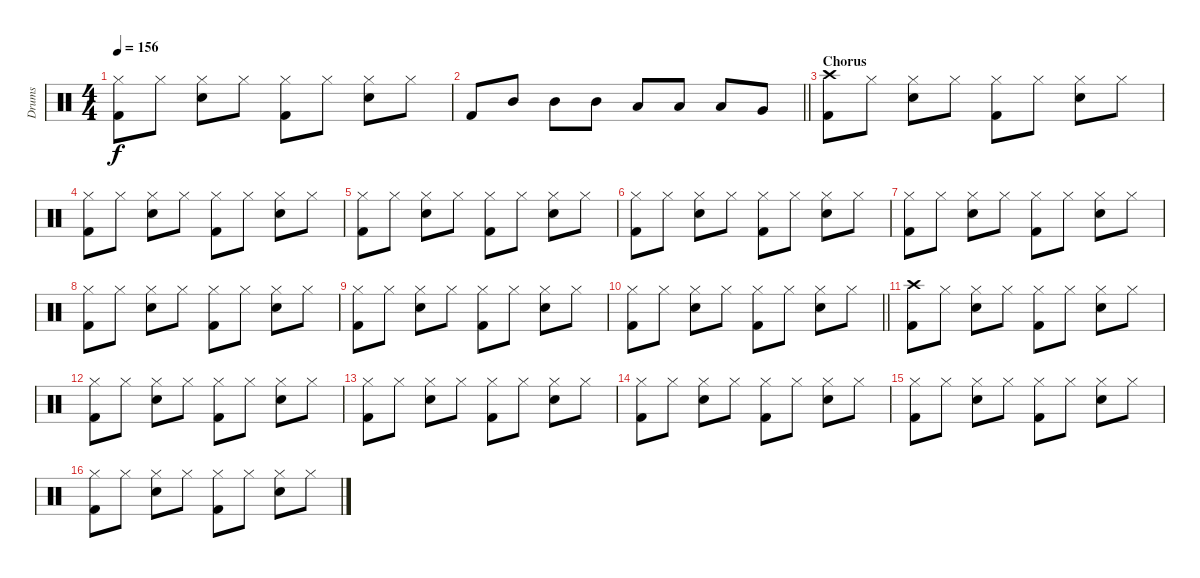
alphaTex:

\track ("Drums" "Drums") {instrument percussion}
\staff {score}
\articulation defaults
\ts (4 4)
\tempo 156
\clef neutral
\ks c
("Hi-Hat (closed)" "Kick (hit) 2").8{dy f} "Hi-Hat (closed)".8 ("Hi-Hat (closed)" "Electric Snare (hit)").8 "Hi-Hat (closed)".8 ("Hi-Hat (closed)" "Kick (hit) 2").8 "Hi-Hat (closed)".8 ("Hi-Hat (closed)" "Electric Snare (hit)").8 "Hi-Hat (closed)".8 |
\barLineRight lightlight "Kick (hit) 2".8 "Mid Tom (hit)".8 "Mid Tom (hit)".8 "Mid Tom (hit)".8 "Low Tom (hit)".8 "Low Tom (hit)".8 "Low Tom (hit)".8 "Very Low Tom (hit)".8
|
\section ("" "Chorus")
("Crash high (hit)" "Kick (hit) 2").8 "Hi-Hat (closed)".8 ("Hi-Hat (closed)" "Electric Snare (hit)").8 "Hi-Hat (closed)".8 ("Hi-Hat (closed)" "Kick (hit) 2").8 "Hi-Hat (closed)".8 ("Hi-Hat (closed)" "Electric Snare (hit)").8 "Hi-Hat (closed)".8 |
("Hi-Hat (closed)" "Kick (hit) 2").8 "Hi-Hat (closed)".8 ("Hi-Hat (closed)" "Electric Snare (hit)").8 "Hi-Hat (closed)".8 ("Hi-Hat (closed)" "Kick (hit) 2").8 "Hi-Hat (closed)".8 ("Hi-Hat (closed)" "Electric Snare (hit)").8 "Hi-Hat (closed)".8 |
("Hi-Hat (closed)" "Kick (hit) 2").8 "Hi-Hat (closed)".8 ("Hi-Hat (closed)" "Electric Snare (hit)").8 "Hi-Hat (closed)".8 ("Hi-Hat (closed)" "Kick (hit) 2").8 "Hi-Hat (closed)".8 ("Hi-Hat (closed)" "Electric Snare (hit)").8 "Hi-Hat (closed)".8 |
("Hi-Hat (closed)" "Kick (hit) 2").8 "Hi-Hat (closed)".8 ("Hi-Hat (closed)" "Electric Snare (hit)").8 "Hi-Hat (closed)".8 ("Hi-Hat (closed)" "Kick (hit) 2").8 "Hi-Hat (closed)".8 ("Hi-Hat (closed)" "Electric Snare (hit)").8 "Hi-Hat (closed)".8 |
("Hi-Hat (closed)" "Kick (hit) 2").8 "Hi-Hat (closed)".8 ("Hi-Hat (closed)" "Electric Snare (hit)").8 "Hi-Hat (closed)".8 ("Hi-Hat (closed)" "Kick (hit) 2").8 "Hi-Hat (closed)".8 ("Hi-Hat (closed)" "Electric Snare (hit)").8 "Hi-Hat (closed)".8 |
("Hi-Hat (closed)" "Kick (hit) 2").8 "Hi-Hat (closed)".8 ("Hi-Hat (closed)" "Electric Snare (hit)").8 "Hi-Hat (closed)".8 ("Hi-Hat (closed)" "Kick (hit) 2").8 "Hi-Hat (closed)".8 ("Hi-Hat (closed)" "Electric Snare (hit)").8 "Hi-Hat (closed)".8 |
("Hi-Hat (closed)" "Kick (hit) 2").8 "Hi-Hat (closed)".8 ("Hi-Hat (closed)" "Electric Snare (hit)").8 "Hi-Hat (closed)".8 ("Hi-Hat (closed)" "Kick (hit) 2").8 "Hi-Hat (closed)".8 ("Hi-Hat (closed)" "Electric Snare (hit)").8 "Hi-Hat (closed)".8 |
\barLineRight lightlight
("Hi-Hat (closed)" "Kick (hit) 2").8 "Hi-Hat (closed)".8 ("Hi-Hat (closed)" "Electric Snare (hit)").8 "Hi-Hat (closed)".8 ("Hi-Hat (closed)" "Kick (hit) 2").8 "Hi-Hat (closed)".8 ("Hi-Hat (closed)" "Electric Snare (hit)").8 "Hi-Hat (closed)".8 |
("Crash high (hit)" "Kick (hit) 2").8 "Hi-Hat (closed)".8 ("Hi-Hat (closed)" "Electric Snare (hit)").8 "Hi-Hat (closed)".8 ("Hi-Hat (closed)" "Kick (hit) 2").8 "Hi-Hat (closed)".8 ("Hi-Hat (closed)" "Electric Snare (hit)").8 "Hi-Hat (closed)".8 |
("Hi-Hat (closed)" "Kick (hit) 2").8 "Hi-Hat (closed)".8 ("Hi-Hat (closed)" "Electric Snare (hit)").8 "Hi-Hat (closed)".8 ("Hi-Hat (closed)" "Kick (hit) 2").8 "Hi-Hat (closed)".8 ("Hi-Hat (closed)" "Electric Snare (hit)").8 "Hi-Hat (closed)".8 |
("Hi-Hat (closed)" "Kick (hit) 2").8 "Hi-Hat (closed)".8 ("Hi-Hat (closed)" "Electric Snare (hit)").8 "Hi-Hat (closed)".8 ("Hi-Hat (closed)" "Kick (hit) 2").8 "Hi-Hat (closed)".8 ("Hi-Hat (closed)" "Electric Snare (hit)").8 "Hi-Hat (closed)".8 |
("Hi-Hat (closed)" "Kick (hit) 2").8 "Hi-Hat (closed)".8 ("Hi-Hat (closed)" "Electric Snare (hit)").8 "Hi-Hat (closed)".8 ("Hi-Hat (closed)" "Kick (hit) 2").8 "Hi-Hat (closed)".8 ("Hi-Hat (closed)" "Electric Snare (hit)").8 "Hi-Hat (closed)".8 |
("Hi-Hat (closed)" "Kick (hit) 2").8 "Hi-Hat (closed)".8 ("Hi-Hat (closed)" "Electric Snare (hit)").8 "Hi-Hat (closed)".8 ("Hi-Hat (closed)" "Kick (hit) 2").8 "Hi-Hat (closed)".8 ("Hi-Hat (closed)" "Electric Snare (hit)").8 "Hi-Hat (closed)".8 |
("Hi-Hat (closed)" "Kick (hit) 2").8 "Hi-Hat (closed)".8 ("Hi-Hat (closed)" "Electric Snare (hit)").8 "Hi-Hat (closed)".8 ("Hi-Hat (closed)" "Kick (hit) 2").8 "Hi-Hat (closed)".8 ("Hi-Hat (closed)" "Electric Snare (hit)").8 "Hi-Hat (closed)".8
